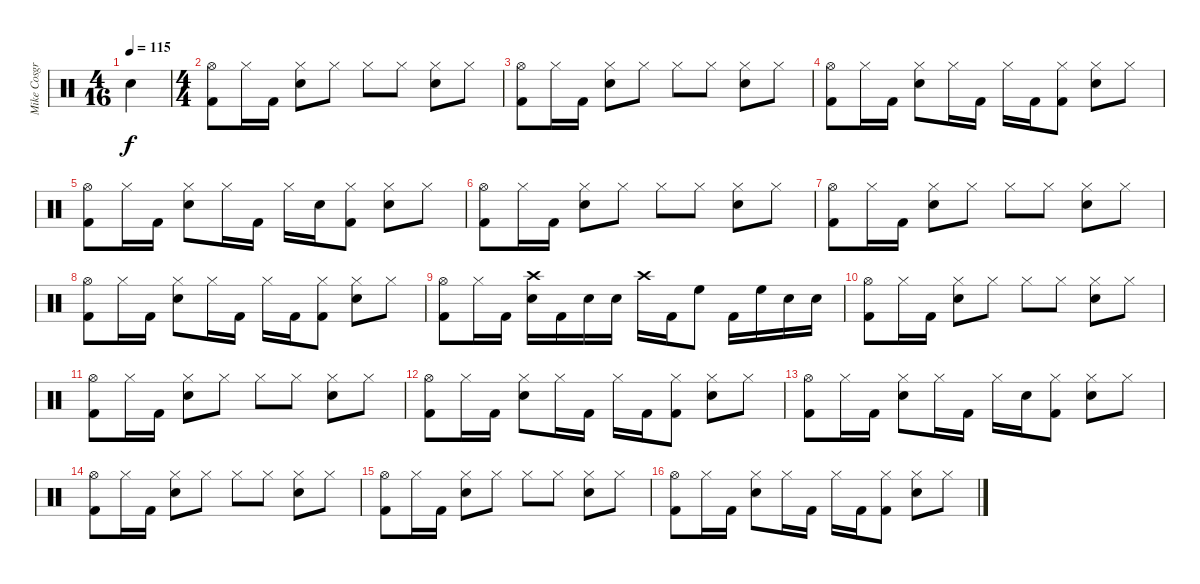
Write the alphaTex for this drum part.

\track ("Mike Cosgrove" "Mike Cosgr") {instrument percussion}
\staff {score}
\articulation defaults
\ts (4 16)
\tempo 115
\clef neutral
\ks c "Electric Snare (hit)".4{dy f}
|
\ts (4 4)
("Hi-Hat (open)" "Kick (hit) 2").8 "Hi-Hat (closed)".16 "Kick (hit) 2".16 ("Hi-Hat (closed)" "Electric Snare (hit)").8 "Hi-Hat (closed)".8 "Hi-Hat (closed)".8 "Hi-Hat (closed)".8 ("Hi-Hat (closed)" "Electric Snare (hit)").8 "Hi-Hat (closed)".8 |
("Hi-Hat (open)" "Kick (hit) 2").8 "Hi-Hat (closed)".16 "Kick (hit) 2".16 ("Hi-Hat (closed)" "Electric Snare (hit)").8 "Hi-Hat (closed)".8 "Hi-Hat (closed)".8 "Hi-Hat (closed)".8 ("Hi-Hat (closed)" "Electric Snare (hit)").8 "Hi-Hat (closed)".8 |
("Hi-Hat (open)" "Kick (hit) 2").8 "Hi-Hat (closed)".16 "Kick (hit) 2".16 ("Hi-Hat (closed)" "Electric Snare (hit)").8 "Hi-Hat (closed)".16 "Kick (hit) 2".16 "Hi-Hat (closed)".16 "Kick (hit) 2".16 ("Hi-Hat (closed)" "Kick (hit) 2").8 ("Hi-Hat (closed)" "Electric Snare (hit)").8 "Hi-Hat (closed)".8 |
("Hi-Hat (open)" "Kick (hit) 2").8 "Hi-Hat (closed)".16 "Kick (hit) 2".16 ("Hi-Hat (closed)" "Electric Snare (hit)").8 "Hi-Hat (closed)".16 "Kick (hit) 2".16 "Hi-Hat (closed)".16 "Electric Snare (hit)".16 ("Hi-Hat (closed)" "Kick (hit) 2").8 ("Hi-Hat (closed)" "Electric Snare (hit)").8 "Hi-Hat (closed)".8 |
("Hi-Hat (open)" "Kick (hit) 2").8 "Hi-Hat (closed)".16 "Kick (hit) 2".16 ("Hi-Hat (closed)" "Electric Snare (hit)").8 "Hi-Hat (closed)".8 "Hi-Hat (closed)".8 "Hi-Hat (closed)".8 ("Hi-Hat (closed)" "Electric Snare (hit)").8 "Hi-Hat (closed)".8 |
("Hi-Hat (open)" "Kick (hit) 2").8 "Hi-Hat (closed)".16 "Kick (hit) 2".16 ("Hi-Hat (closed)" "Electric Snare (hit)").8 "Hi-Hat (closed)".8 "Hi-Hat (closed)".8 "Hi-Hat (closed)".8 ("Hi-Hat (closed)" "Electric Snare (hit)").8 "Hi-Hat (closed)".8 |
("Hi-Hat (open)" "Kick (hit) 2").8 "Hi-Hat (closed)".16 "Kick (hit) 2".16 ("Hi-Hat (closed)" "Electric Snare (hit)").8 "Hi-Hat (closed)".16 "Kick (hit) 2".16 "Hi-Hat (closed)".16 "Kick (hit) 2".16 ("Hi-Hat (closed)" "Kick (hit) 2").8 ("Hi-Hat (closed)" "Electric Snare (hit)").8 "Hi-Hat (closed)".8 |
("Hi-Hat (open)" "Kick (hit) 2").8 "Hi-Hat (closed)".16 "Kick (hit) 2".16 ("Crash high (hit)" "Electric Snare (hit)").16 "Kick (hit) 2".16 "Electric Snare (hit)".16 "Electric Snare (hit)".16 "Crash high (hit)".16 "Kick (hit) 2".16 "High Floor Tom (hit)".8 "Kick (hit) 2".16 "High Floor Tom (hit)".16 "Electric Snare (hit)".16 "Electric Snare (hit)".16 |
("Hi-Hat (open)" "Kick (hit) 2").8 "Hi-Hat (closed)".16 "Kick (hit) 2".16 ("Hi-Hat (closed)" "Electric Snare (hit)").8 "Hi-Hat (closed)".8 "Hi-Hat (closed)".8 "Hi-Hat (closed)".8 ("Hi-Hat (closed)" "Electric Snare (hit)").8 "Hi-Hat (closed)".8 |
("Hi-Hat (open)" "Kick (hit) 2").8 "Hi-Hat (closed)".16 "Kick (hit) 2".16 ("Hi-Hat (closed)" "Electric Snare (hit)").8 "Hi-Hat (closed)".8 "Hi-Hat (closed)".8 "Hi-Hat (closed)".8 ("Hi-Hat (closed)" "Electric Snare (hit)").8 "Hi-Hat (closed)".8 |
("Hi-Hat (open)" "Kick (hit) 2").8 "Hi-Hat (closed)".16 "Kick (hit) 2".16 ("Hi-Hat (closed)" "Electric Snare (hit)").8 "Hi-Hat (closed)".16 "Kick (hit) 2".16 "Hi-Hat (closed)".16 "Kick (hit) 2".16 ("Hi-Hat (closed)" "Kick (hit) 2").8 ("Hi-Hat (closed)" "Electric Snare (hit)").8 "Hi-Hat (closed)".8 |
("Hi-Hat (open)" "Kick (hit) 2").8 "Hi-Hat (closed)".16 "Kick (hit) 2".16 ("Hi-Hat (closed)" "Electric Snare (hit)").8 "Hi-Hat (closed)".16 "Kick (hit) 2".16 "Hi-Hat (closed)".16 "Electric Snare (hit)".16 ("Hi-Hat (closed)" "Kick (hit) 2").8 ("Hi-Hat (closed)" "Electric Snare (hit)").8 "Hi-Hat (closed)".8 |
("Hi-Hat (open)" "Kick (hit) 2").8 "Hi-Hat (closed)".16 "Kick (hit) 2".16 ("Hi-Hat (closed)" "Electric Snare (hit)").8 "Hi-Hat (closed)".8 "Hi-Hat (closed)".8 "Hi-Hat (closed)".8 ("Hi-Hat (closed)" "Electric Snare (hit)").8 "Hi-Hat (closed)".8 |
("Hi-Hat (open)" "Kick (hit) 2").8 "Hi-Hat (closed)".16 "Kick (hit) 2".16 ("Hi-Hat (closed)" "Electric Snare (hit)").8 "Hi-Hat (closed)".8 "Hi-Hat (closed)".8 "Hi-Hat (closed)".8 ("Hi-Hat (closed)" "Electric Snare (hit)").8 "Hi-Hat (closed)".8 |
("Hi-Hat (open)" "Kick (hit) 2").8 "Hi-Hat (closed)".16 "Kick (hit) 2".16 ("Hi-Hat (closed)" "Electric Snare (hit)").8 "Hi-Hat (closed)".16 "Kick (hit) 2".16 "Hi-Hat (closed)".16 "Kick (hit) 2".16 ("Hi-Hat (closed)" "Kick (hit) 2").8 ("Hi-Hat (closed)" "Electric Snare (hit)").8 "Hi-Hat (closed)".8
